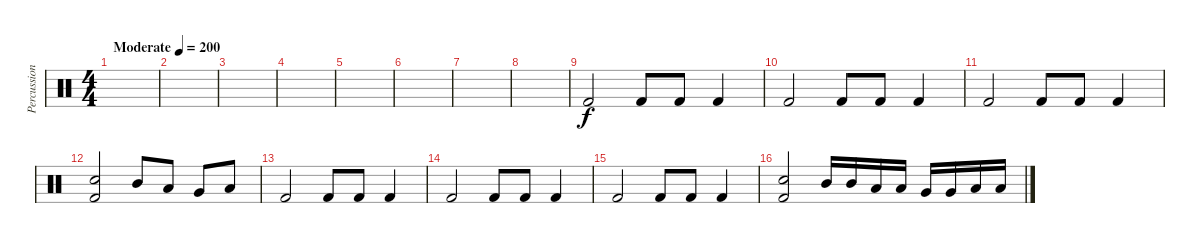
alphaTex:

\track ("Percussions" "Percussion") {instrument percussion}
\staff {score}
\articulation defaults
\ts (4 4)
\tempo (200 "Moderate")
\clef neutral
\ks c
|
|
|
|
|
|
|
|
"Kick (hit) 2".2 "Kick (hit) 2".8 "Kick (hit) 2".8 "Kick (hit) 2".4 |
"Kick (hit) 2".2 "Kick (hit) 2".8 "Kick (hit) 2".8 "Kick (hit) 2".4 |
"Kick (hit) 2".2 "Kick (hit) 2".8 "Kick (hit) 2".8 "Kick (hit) 2".4 |
("Snare (hit) 2" "Kick (hit) 2").2 "Mid Tom (hit)".8 "Low Tom (hit)".8 "Very Low Tom (hit)".8 "Low Floor Tom (hit)".8 |
"Kick (hit) 2".2 "Kick (hit) 2".8 "Kick (hit) 2".8 "Kick (hit) 2".4 |
"Kick (hit) 2".2 "Kick (hit) 2".8 "Kick (hit) 2".8 "Kick (hit) 2".4 |
"Kick (hit) 2".2 "Kick (hit) 2".8 "Kick (hit) 2".8 "Kick (hit) 2".4 |
("Snare (hit) 2" "Kick (hit) 2").2 "Mid Tom (hit)".16 "Mid Tom (hit)".16 "Low Tom (hit)".16 "Low Tom (hit)".16 "Very Low Tom (hit)".16 "Very Low Tom (hit)".16 "Low Floor Tom (hit)".16 "Low Floor Tom (hit)".16
